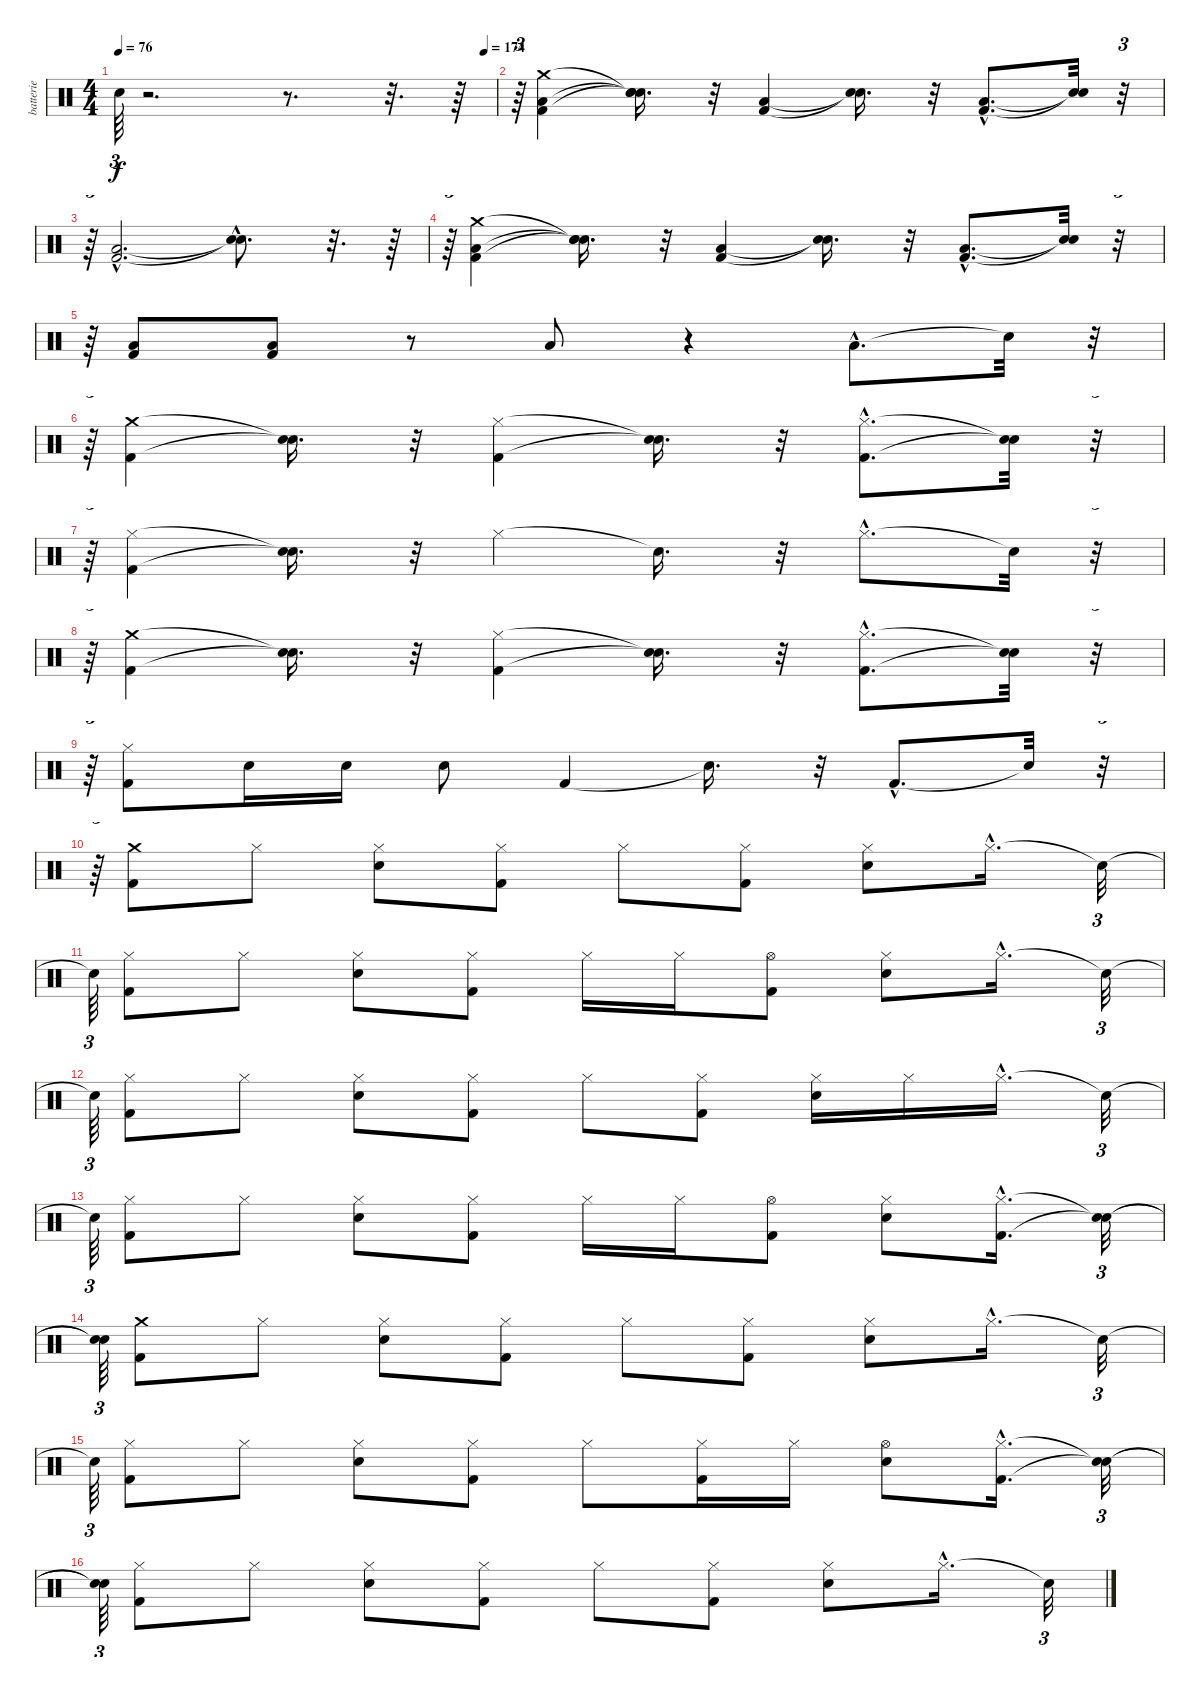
\track ("batterie" "batterie") {instrument percussion}
\staff {score}
\articulation defaults
\ts (4 4)
\tempo 76
\tempo (174 0.96875)
\clef neutral
\ks c "Snare (hit)"{t}.64{tu (3 2) dy f}
r.2{d} r.8{d} r.32{d} r.64 |
r.64{tu (3 2)} ("Kick (hit) 2" "Low Floor Tom (hit)" "Crash medium (hit)").4 ("Snare (hit)"{t} "Snare (hit)"{t} "Snare (hit)"{t}).16{d} r.32 ("Kick (hit) 2" "Low Floor Tom (hit)").4 ("Snare (hit)"{t} "Snare (hit)"{t}).16{d} r.32 ("Kick (hit) 2"{hac} "Low Floor Tom (hit)"{hac}).8{d} ("Snare (hit)"{t} "Snare (hit)"{t}).32 r.32{tu (3 2)} |
r.64{tu (3 2)} ("Kick (hit) 2"{hac} "Low Floor Tom (hit)"{hac}).2{d} ("Snare (hit)"{hac t} "Snare (hit)"{hac t}).8{d} r.32{d} r.64 |
r.64{tu (3 2)} ("Kick (hit) 2" "Low Floor Tom (hit)" "Crash medium (hit)").4 ("Snare (hit)"{t} "Snare (hit)"{t} "Snare (hit)"{t}).16{d} r.32 ("Kick (hit) 2" "Low Floor Tom (hit)").4 ("Snare (hit)"{t} "Snare (hit)"{t}).16{d} r.32 ("Kick (hit) 2"{hac} "Low Floor Tom (hit)"{hac}).8{d} ("Snare (hit)"{t} "Snare (hit)"{t}).32 r.32{tu (3 2)} |
r.64{tu (3 2)} ("Kick (hit) 2" "Low Floor Tom (hit)").8 ("Kick (hit) 2" "Low Floor Tom (hit)").8 r.8 "Low Floor Tom (hit)".8 r.4 "Low Floor Tom (hit)"{hac}.8{d} "Snare (hit)"{t}.32 r.32{tu (3 2)} |
r.64{tu (3 2)} ("Kick (hit) 2" "Crash medium (hit)").4 ("Snare (hit)"{t} "Snare (hit)"{t}).16{d} r.32 ("Kick (hit) 2" "Hi-Hat (closed)").4 ("Snare (hit)"{t} "Snare (hit)"{t}).16{d} r.32 ("Kick (hit) 2"{hac} "Hi-Hat (closed)"{hac}).8{d} ("Snare (hit)"{t} "Snare (hit)"{t}).32 r.32{tu (3 2)} |
r.64{tu (3 2)} ("Kick (hit) 2" "Hi-Hat (closed)").4 ("Snare (hit)"{t} "Snare (hit)"{t}).16{d} r.32 "Hi-Hat (closed)".4 "Snare (hit)"{t}.16{d} r.32 "Hi-Hat (closed)"{hac}.8{d} "Snare (hit)"{t}.32 r.32{tu (3 2)} |
r.64{tu (3 2)} ("Kick (hit) 2" "Crash medium (hit)").4 ("Snare (hit)"{t} "Snare (hit)"{t}).16{d} r.32 ("Kick (hit) 2" "Hi-Hat (closed)").4 ("Snare (hit)"{t} "Snare (hit)"{t}).16{d} r.32 ("Kick (hit) 2"{hac} "Hi-Hat (closed)"{hac}).8{d} ("Snare (hit)"{t} "Snare (hit)"{t}).32 r.32{tu (3 2)} |
r.64{tu (3 2)} ("Kick (hit) 2" "Hi-Hat (closed)").8 "Electric Snare (hit)".16 "Electric Snare (hit)".16 "Electric Snare (hit)".8 "Kick (hit) 2".4 "Snare (hit)"{t}.16{d} r.32 "Kick (hit) 2"{hac}.8{d} "Snare (hit)"{t}.32 r.32{tu (3 2)} |
r.64{tu (3 2)} ("Kick (hit) 2" "Crash medium (hit)").8 "Hi-Hat (closed)".8 ("Electric Snare (hit)" "Hi-Hat (closed)").8 ("Kick (hit) 2" "Hi-Hat (closed)").8 "Hi-Hat (closed)".8 ("Kick (hit) 2" "Hi-Hat (closed)").8 ("Electric Snare (hit)" "Hi-Hat (closed)").8 "Hi-Hat (closed)"{hac}.16{d} "Snare (hit)"{t}.32{tu (3 2)} |
"Snare (hit)"{t}.64{tu (3 2)} ("Kick (hit) 2" "Hi-Hat (closed)").8 "Hi-Hat (closed)".8 ("Electric Snare (hit)" "Hi-Hat (closed)").8 ("Kick (hit) 2" "Hi-Hat (closed)").8 "Hi-Hat (closed)".16 "Hi-Hat (closed)".16 ("Kick (hit) 2" "Hi-Hat (open)").8 ("Electric Snare (hit)" "Hi-Hat (closed)").8 "Hi-Hat (closed)"{hac}.16{d} "Snare (hit)"{t}.32{tu (3 2)} |
"Snare (hit)"{t}.64{tu (3 2)} ("Kick (hit) 2" "Hi-Hat (closed)").8 "Hi-Hat (closed)".8 ("Electric Snare (hit)" "Hi-Hat (closed)").8 ("Kick (hit) 2" "Hi-Hat (closed)").8 "Hi-Hat (closed)".8 ("Kick (hit) 2" "Hi-Hat (closed)").8 ("Electric Snare (hit)" "Hi-Hat (closed)").16 "Hi-Hat (closed)".16 "Hi-Hat (closed)"{hac}.16{d} "Snare (hit)"{t}.32{tu (3 2)} |
"Snare (hit)"{t}.64{tu (3 2)} ("Kick (hit) 2" "Hi-Hat (closed)").8 "Hi-Hat (closed)".8 ("Electric Snare (hit)" "Hi-Hat (closed)").8 ("Kick (hit) 2" "Hi-Hat (closed)").8 "Hi-Hat (closed)".16 "Hi-Hat (closed)".16 ("Kick (hit) 2" "Hi-Hat (open)").8 ("Electric Snare (hit)" "Hi-Hat (closed)").8 ("Kick (hit) 2"{hac} "Hi-Hat (closed)"{hac}).16{d} ("Snare (hit)"{t} "Snare (hit)"{t}).32{tu (3 2)} |
("Snare (hit)"{t} "Snare (hit)"{t}).64{tu (3 2)} ("Kick (hit) 2" "Crash medium (hit)").8 "Hi-Hat (closed)".8 ("Electric Snare (hit)" "Hi-Hat (closed)").8 ("Kick (hit) 2" "Hi-Hat (closed)").8 "Hi-Hat (closed)".8 ("Kick (hit) 2" "Hi-Hat (closed)").8 ("Electric Snare (hit)" "Hi-Hat (closed)").8 "Hi-Hat (closed)"{hac}.16{d} "Snare (hit)"{t}.32{tu (3 2)} |
"Snare (hit)"{t}.64{tu (3 2)} ("Kick (hit) 2" "Hi-Hat (closed)").8 "Hi-Hat (closed)".8 ("Electric Snare (hit)" "Hi-Hat (closed)").8 ("Kick (hit) 2" "Hi-Hat (closed)").8 "Hi-Hat (closed)".8 ("Kick (hit) 2" "Hi-Hat (closed)").16 "Hi-Hat (closed)".16 ("Electric Snare (hit)" "Hi-Hat (open)").8 ("Kick (hit) 2"{hac} "Hi-Hat (closed)"{hac}).16{d} ("Snare (hit)"{t} "Snare (hit)"{t}).32{tu (3 2)} |
("Snare (hit)"{t} "Snare (hit)"{t}).64{tu (3 2)} ("Kick (hit) 2" "Hi-Hat (closed)").8 "Hi-Hat (closed)".8 ("Electric Snare (hit)" "Hi-Hat (closed)").8 ("Kick (hit) 2" "Hi-Hat (closed)").8 "Hi-Hat (closed)".8 ("Kick (hit) 2" "Hi-Hat (closed)").8 ("Electric Snare (hit)" "Hi-Hat (closed)").8 "Hi-Hat (closed)"{hac}.16{d} "Snare (hit)"{t}.32{tu (3 2)}
